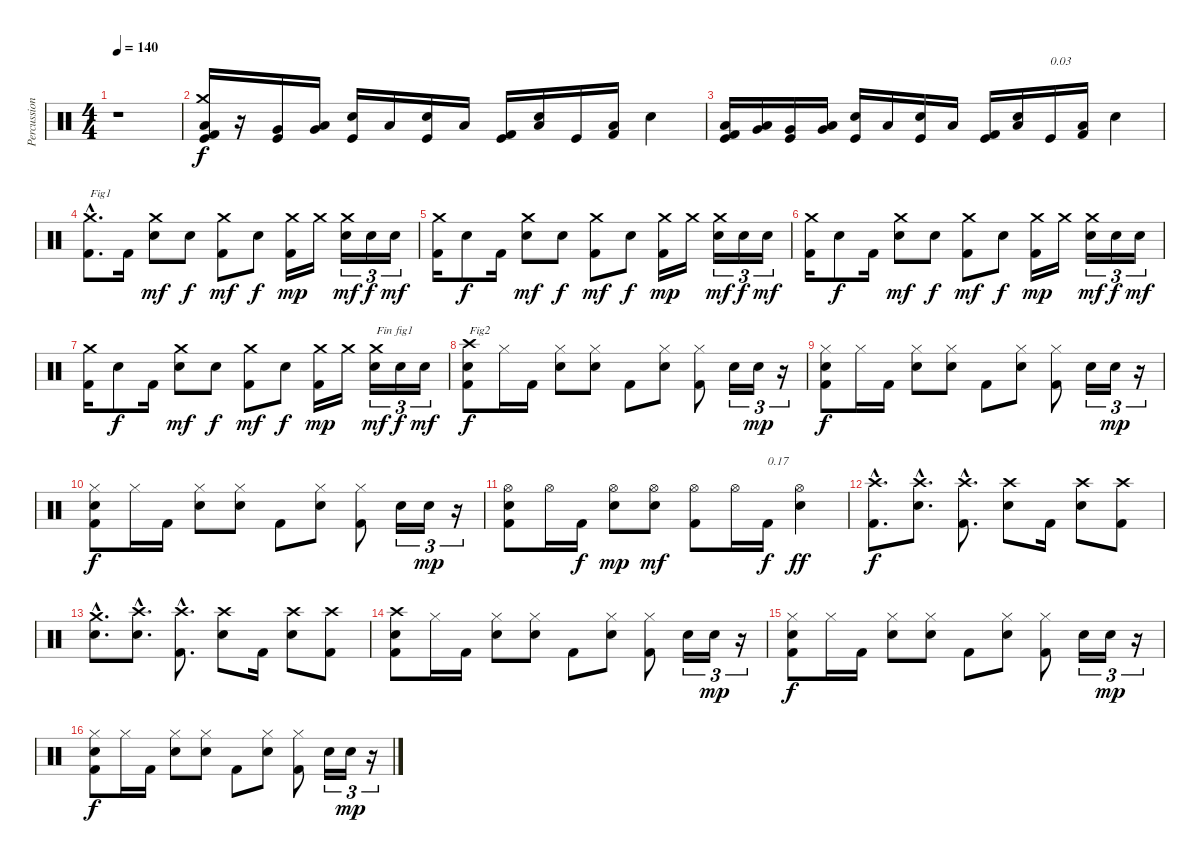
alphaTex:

\track ("Percussions" "Percussion") {instrument percussion}
\staff {score}
\articulation defaults
\ts (4 4)
\tempo 140
\clef neutral
\ks c
r.1{dy f} |
("Kick (hit) 2" "Low Tom (hit)" "Crash medium (hit)" "Kick (hit)").16 r.16 ("Very Low Tom (hit)" "Kick (hit)").16 ("Very Low Tom (hit)" "Low Floor Tom (hit)").16 ("Electric Snare (hit)" "Kick (hit)").16 "Low Floor Tom (hit)".16 ("Electric Snare (hit)" "Kick (hit)").16 "Low Floor Tom (hit)".16 ("Kick (hit) 2" "Kick (hit)").16 ("Electric Snare (hit)" "Low Floor Tom (hit)").16 "Kick (hit)".16 ("Kick (hit) 2" "Low Floor Tom (hit)").16 "Electric Snare (hit)".4 |
("Kick (hit) 2" "Low Tom (hit)" "Kick (hit)").16 ("Very Low Tom (hit)" "Low Floor Tom (hit)").16 ("Very Low Tom (hit)" "Kick (hit)").16 ("Very Low Tom (hit)" "Low Floor Tom (hit)").16 ("Electric Snare (hit)" "Kick (hit)").16 "Low Floor Tom (hit)".16 ("Electric Snare (hit)" "Kick (hit)").16 "Low Floor Tom (hit)".16 ("Kick (hit) 2" "Kick (hit)").16 ("Electric Snare (hit)" "Low Floor Tom (hit)").16 "Kick (hit)".16{txt "0.03"} ("Kick (hit) 2" "Low Floor Tom (hit)").16 "Electric Snare (hit)".4 |
("Kick (hit) 2"{hac} "Crash medium (hit)"{hac}).8{d txt "Fig1"} "Kick (hit) 2".16 ("Electric Snare (hit)" "Crash medium (hit)").8{dy mf} "Electric Snare (hit)".8{dy f} ("Kick (hit) 2" "Crash medium (hit)").8{dy mf} "Electric Snare (hit)".8{dy f} ("Kick (hit) 2" "Crash medium (hit)").16{dy mp} "Crash medium (hit)".16 ("Electric Snare (hit)" "Crash medium (hit)").16{tu (3 2) dy mf} "Electric Snare (hit)".16{tu (3 2) dy f} "Electric Snare (hit)".16{tu (3 2) dy mf} |
("Kick (hit) 2" "Crash medium (hit)").16 "Electric Snare (hit)".8{dy f} "Kick (hit) 2".16 ("Electric Snare (hit)" "Crash medium (hit)").8{dy mf} "Electric Snare (hit)".8{dy f} ("Kick (hit) 2" "Crash medium (hit)").8{dy mf} "Electric Snare (hit)".8{dy f} ("Kick (hit) 2" "Crash medium (hit)").16{dy mp} "Crash medium (hit)".16 ("Electric Snare (hit)" "Crash medium (hit)").16{tu (3 2) dy mf} "Electric Snare (hit)".16{tu (3 2) dy f} "Electric Snare (hit)".16{tu (3 2) dy mf} |
("Kick (hit) 2" "Crash medium (hit)").16 "Electric Snare (hit)".8{dy f} "Kick (hit) 2".16 ("Electric Snare (hit)" "Crash medium (hit)").8{dy mf} "Electric Snare (hit)".8{dy f} ("Kick (hit) 2" "Crash medium (hit)").8{dy mf} "Electric Snare (hit)".8{dy f} ("Kick (hit) 2" "Crash medium (hit)").16{dy mp} "Crash medium (hit)".16 ("Electric Snare (hit)" "Crash medium (hit)").16{tu (3 2) dy mf} "Electric Snare (hit)".16{tu (3 2) dy f} "Electric Snare (hit)".16{tu (3 2) dy mf} |
("Kick (hit) 2" "Crash medium (hit)").16 "Electric Snare (hit)".8{dy f} "Kick (hit) 2".16 ("Electric Snare (hit)" "Crash medium (hit)").8{dy mf} "Electric Snare (hit)".8{dy f} ("Kick (hit) 2" "Crash medium (hit)").8{dy mf} "Electric Snare (hit)".8{dy f} ("Kick (hit) 2" "Crash medium (hit)").16{dy mp} "Crash medium (hit)".16 ("Electric Snare (hit)" "Crash medium (hit)").16{tu (3 2) txt "Fin fig1" dy mf} "Electric Snare (hit)".16{tu (3 2) dy f} "Electric Snare (hit)".16{tu (3 2) dy mf} |
("Kick (hit) 2" "Electric Snare (hit)" "Crash high (hit)").8{txt "Fig2" dy f} "Hi-Hat (closed)".16 "Kick (hit) 2".16 ("Electric Snare (hit)" "Hi-Hat (closed)").8 ("Electric Snare (hit)" "Hi-Hat (closed)").8 "Kick (hit) 2".8 ("Electric Snare (hit)" "Hi-Hat (closed)").8 ("Kick (hit) 2" "Hi-Hat (closed)").8 "Electric Snare (hit)".16{tu (3 2)} "Electric Snare (hit)".16{tu (3 2) dy mp} r.16{tu (3 2)} |
("Kick (hit) 2" "Electric Snare (hit)" "Hi-Hat (closed)").8{dy f} "Hi-Hat (closed)".16 "Kick (hit) 2".16 ("Electric Snare (hit)" "Hi-Hat (closed)").8 ("Electric Snare (hit)" "Hi-Hat (closed)").8 "Kick (hit) 2".8 ("Electric Snare (hit)" "Hi-Hat (closed)").8 ("Kick (hit) 2" "Hi-Hat (closed)").8 "Electric Snare (hit)".16{tu (3 2)} "Electric Snare (hit)".16{tu (3 2) dy mp} r.16{tu (3 2)} |
("Kick (hit) 2" "Electric Snare (hit)" "Hi-Hat (closed)").8{dy f} "Hi-Hat (closed)".16 "Kick (hit) 2".16 ("Electric Snare (hit)" "Hi-Hat (closed)").8 ("Electric Snare (hit)" "Hi-Hat (closed)").8 "Kick (hit) 2".8 ("Electric Snare (hit)" "Hi-Hat (closed)").8 ("Kick (hit) 2" "Hi-Hat (closed)").8 "Electric Snare (hit)".16{tu (3 2)} "Electric Snare (hit)".16{tu (3 2) dy mp} r.16{tu (3 2)} |
("Kick (hit) 2" "Electric Snare (hit)" "Hi-Hat (open)").8 "Hi-Hat (open)".16 "Kick (hit) 2".16{dy f} ("Electric Snare (hit)" "Hi-Hat (open)").8{dy mp} ("Electric Snare (hit)" "Hi-Hat (open)").8{dy mf} ("Kick (hit) 2" "Hi-Hat (open)").8 "Hi-Hat (open)".16 "Kick (hit) 2".16{txt "0.17" dy f} ("Electric Snare (hit)" "Hi-Hat (open)").4{dy ff} |
("Kick (hit) 2"{hac} "Crash high (hit)"{hac}).8{d dy f} ("Electric Snare (hit)"{hac} "Crash high (hit)"{hac}).8{d} ("Kick (hit) 2"{hac} "Crash high (hit)"{hac}).8{d} ("Electric Snare (hit)" "Crash high (hit)").8 "Kick (hit) 2".16 ("Electric Snare (hit)" "Crash high (hit)").8 ("Kick (hit) 2" "Crash high (hit)").8 |
("Electric Snare (hit)"{hac} "Crash medium (hit)"{hac}).8{d} ("Electric Snare (hit)"{hac} "Crash high (hit)"{hac}).8{d} ("Kick (hit) 2"{hac} "Crash high (hit)"{hac}).8{d} ("Electric Snare (hit)" "Crash high (hit)").8 "Kick (hit) 2".16 ("Electric Snare (hit)" "Crash high (hit)").8 ("Kick (hit) 2" "Crash high (hit)").8 |
("Kick (hit) 2" "Electric Snare (hit)" "Crash high (hit)").8 "Hi-Hat (closed)".16 "Kick (hit) 2".16 ("Electric Snare (hit)" "Hi-Hat (closed)").8 ("Electric Snare (hit)" "Hi-Hat (closed)").8 "Kick (hit) 2".8 ("Electric Snare (hit)" "Hi-Hat (closed)").8 ("Kick (hit) 2" "Hi-Hat (closed)").8 "Electric Snare (hit)".16{tu (3 2)} "Electric Snare (hit)".16{tu (3 2) dy mp} r.16{tu (3 2)} |
("Kick (hit) 2" "Electric Snare (hit)" "Hi-Hat (closed)").8{dy f} "Hi-Hat (closed)".16 "Kick (hit) 2".16 ("Electric Snare (hit)" "Hi-Hat (closed)").8 ("Electric Snare (hit)" "Hi-Hat (closed)").8 "Kick (hit) 2".8 ("Electric Snare (hit)" "Hi-Hat (closed)").8 ("Kick (hit) 2" "Hi-Hat (closed)").8 "Electric Snare (hit)".16{tu (3 2)} "Electric Snare (hit)".16{tu (3 2) dy mp} r.16{tu (3 2)} |
("Kick (hit) 2" "Electric Snare (hit)" "Hi-Hat (closed)").8{dy f} "Hi-Hat (closed)".16 "Kick (hit) 2".16 ("Electric Snare (hit)" "Hi-Hat (closed)").8 ("Electric Snare (hit)" "Hi-Hat (closed)").8 "Kick (hit) 2".8 ("Electric Snare (hit)" "Hi-Hat (closed)").8 ("Kick (hit) 2" "Hi-Hat (closed)").8 "Electric Snare (hit)".16{tu (3 2)} "Electric Snare (hit)".16{tu (3 2) dy mp} r.16{tu (3 2)}
